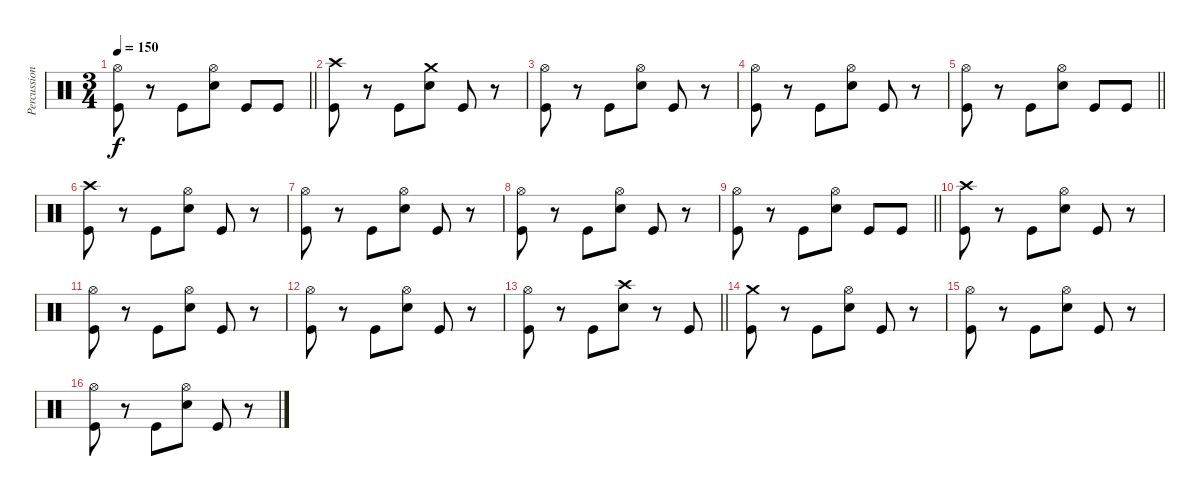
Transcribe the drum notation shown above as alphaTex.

\track ("Percussion" "Percussion") {instrument percussion}
\staff {score}
\articulation defaults
\ts (3 4)
\tempo 150
\clef neutral
\barLineRight lightlight
\ks c
("Hi-Hat (open)" "Kick (hit)").8{dy f} r.8 "Kick (hit)".8 ("Hi-Hat (open)" "Snare (hit) 2").8 "Kick (hit)".8 "Kick (hit)".8 |
("Crash high (hit)" "Kick (hit)").8 r.8 "Kick (hit)".8 ("Crash medium (hit)" "Snare (hit) 2").8 "Kick (hit)".8 r.8 |
("Hi-Hat (open)" "Kick (hit)").8 r.8 "Kick (hit)".8 ("Hi-Hat (open)" "Snare (hit) 2").8 "Kick (hit)".8 r.8 |
("Hi-Hat (open)" "Kick (hit)").8 r.8 "Kick (hit)".8 ("Hi-Hat (open)" "Snare (hit) 2").8 "Kick (hit)".8 r.8 |
\barLineRight lightlight
("Hi-Hat (open)" "Kick (hit)").8 r.8 "Kick (hit)".8 ("Hi-Hat (open)" "Snare (hit) 2").8 "Kick (hit)".8 "Kick (hit)".8 |
("Crash high (hit)" "Kick (hit)").8 r.8 "Kick (hit)".8 ("Hi-Hat (open)" "Snare (hit) 2").8 "Kick (hit)".8 r.8 |
("Hi-Hat (open)" "Kick (hit)").8 r.8 "Kick (hit)".8 ("Hi-Hat (open)" "Snare (hit) 2").8 "Kick (hit)".8 r.8 |
("Hi-Hat (open)" "Kick (hit)").8 r.8 "Kick (hit)".8 ("Hi-Hat (open)" "Snare (hit) 2").8 "Kick (hit)".8 r.8 |
\barLineRight lightlight
("Hi-Hat (open)" "Kick (hit)").8 r.8 "Kick (hit)".8 ("Hi-Hat (open)" "Snare (hit) 2").8 "Kick (hit)".8 "Kick (hit)".8 |
("Crash high (hit)" "Kick (hit)").8 r.8 "Kick (hit)".8 ("Hi-Hat (open)" "Snare (hit) 2").8 "Kick (hit)".8 r.8 |
("Hi-Hat (open)" "Kick (hit)").8 r.8 "Kick (hit)".8 ("Hi-Hat (open)" "Snare (hit) 2").8 "Kick (hit)".8 r.8 |
("Hi-Hat (open)" "Kick (hit)").8 r.8 "Kick (hit)".8 ("Hi-Hat (open)" "Snare (hit) 2").8 "Kick (hit)".8 r.8 |
\barLineRight lightlight
("Hi-Hat (open)" "Kick (hit)").8 r.8 "Kick (hit)".8 ("Crash high (hit)" "Snare (hit) 2").8 r.8 "Kick (hit)".8 |
("Crash medium (hit)" "Kick (hit)").8 r.8 "Kick (hit)".8 ("Hi-Hat (open)" "Snare (hit) 2").8 "Kick (hit)".8 r.8 |
("Hi-Hat (open)" "Kick (hit)").8 r.8 "Kick (hit)".8 ("Hi-Hat (open)" "Snare (hit) 2").8 "Kick (hit)".8 r.8 |
("Hi-Hat (open)" "Kick (hit)").8 r.8 "Kick (hit)".8 ("Hi-Hat (open)" "Snare (hit) 2").8 "Kick (hit)".8 r.8
